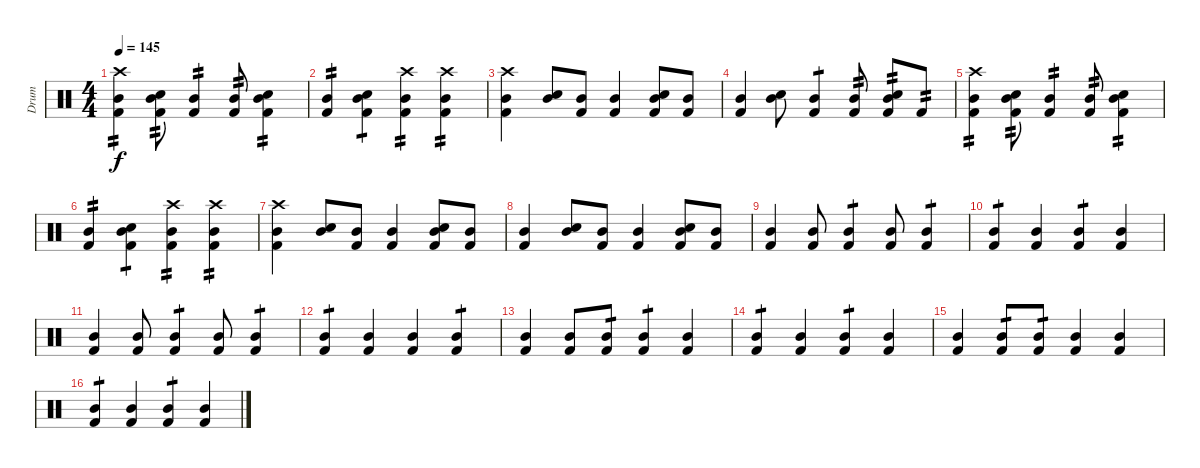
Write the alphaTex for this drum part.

\track ("Drum" "Drum") {instrument percussion}
\staff {score}
\articulation defaults
\ts (4 4)
\tempo 145
\clef neutral
\ks c
("Mid Tom (hit)" "Kick (hit) 2" "Crash high (hit)").4{tp 2 dy f} ("Mid Tom (hit)" "Kick (hit) 2" "Snare (hit) 2").8{tp 2} ("Mid Tom (hit)" "Kick (hit) 2").4{tp 2} ("Mid Tom (hit)" "Kick (hit) 2").8{tp 2} ("Mid Tom (hit)" "Snare (hit) 2" "Kick (hit) 2").4{tp 2} |
("Mid Tom (hit)" "Kick (hit) 2").4{tp 2} ("Mid Tom (hit)" "Kick (hit) 2" "Snare (hit) 2").4{tp 1} ("Mid Tom (hit)" "Kick (hit) 2" "Crash high (hit)").4{tp 2} ("Mid Tom (hit)" "Kick (hit) 2" "Crash high (hit)").4{tp 2} |
("Mid Tom (hit)" "Kick (hit) 2" "Crash high (hit)").4 ("Mid Tom (hit)" "Snare (hit) 2").8 ("Mid Tom (hit)" "Kick (hit) 2").8 ("Mid Tom (hit)" "Kick (hit) 2").4 ("Mid Tom (hit)" "Kick (hit) 2" "Snare (hit) 2").8 ("Mid Tom (hit)" "Kick (hit) 2").8 |
("Mid Tom (hit)" "Kick (hit) 2").4 ("Mid Tom (hit)" "Snare (hit) 2").8 ("Mid Tom (hit)" "Kick (hit) 2").4{tp 1} ("Mid Tom (hit)" "Kick (hit) 2").8{tp 2} ("Mid Tom (hit)" "Snare (hit) 2" "Kick (hit) 2").8{tp 2} "Kick (hit) 2".8{tp 2} |
("Mid Tom (hit)" "Kick (hit) 2" "Crash high (hit)").4{tp 2} ("Mid Tom (hit)" "Kick (hit) 2" "Snare (hit) 2").8{tp 2} ("Mid Tom (hit)" "Kick (hit) 2").4{tp 2} ("Mid Tom (hit)" "Kick (hit) 2").8{tp 2} ("Mid Tom (hit)" "Snare (hit) 2" "Kick (hit) 2").4{tp 2} |
("Mid Tom (hit)" "Kick (hit) 2").4{tp 2} ("Mid Tom (hit)" "Kick (hit) 2" "Snare (hit) 2").4{tp 1} ("Mid Tom (hit)" "Kick (hit) 2" "Crash high (hit)").4{tp 2} ("Mid Tom (hit)" "Kick (hit) 2" "Crash high (hit)").4{tp 2} |
("Mid Tom (hit)" "Kick (hit) 2" "Crash high (hit)").4 ("Mid Tom (hit)" "Snare (hit) 2").8 ("Mid Tom (hit)" "Kick (hit) 2").8 ("Mid Tom (hit)" "Kick (hit) 2").4 ("Mid Tom (hit)" "Kick (hit) 2" "Snare (hit) 2").8 ("Mid Tom (hit)" "Kick (hit) 2").8 |
("Mid Tom (hit)" "Kick (hit) 2").4 ("Mid Tom (hit)" "Snare (hit) 2").8 ("Mid Tom (hit)" "Kick (hit) 2").8 ("Mid Tom (hit)" "Kick (hit) 2").4 ("Mid Tom (hit)" "Kick (hit) 2" "Snare (hit) 2").8 ("Mid Tom (hit)" "Kick (hit) 2").8 |
("Mid Tom (hit)" "Kick (hit) 2").4 ("Mid Tom (hit)" "Kick (hit) 2").8 ("Mid Tom (hit)" "Kick (hit) 2").4{tp 1} ("Mid Tom (hit)" "Kick (hit) 2").8 ("Mid Tom (hit)" "Kick (hit) 2").4{tp 1} |
("Mid Tom (hit)" "Kick (hit) 2").4{tp 1} ("Mid Tom (hit)" "Kick (hit) 2").4 ("Mid Tom (hit)" "Kick (hit) 2").4{tp 1} ("Mid Tom (hit)" "Kick (hit) 2").4 |
("Mid Tom (hit)" "Kick (hit) 2").4 ("Mid Tom (hit)" "Kick (hit) 2").8 ("Mid Tom (hit)" "Kick (hit) 2").4{tp 1} ("Mid Tom (hit)" "Kick (hit) 2").8 ("Mid Tom (hit)" "Kick (hit) 2").4{tp 1} |
("Mid Tom (hit)" "Kick (hit) 2").4{tp 1} ("Mid Tom (hit)" "Kick (hit) 2").4 ("Mid Tom (hit)" "Kick (hit) 2").4 ("Mid Tom (hit)" "Kick (hit) 2").4{tp 1} |
("Mid Tom (hit)" "Kick (hit) 2").4 ("Mid Tom (hit)" "Kick (hit) 2").8 ("Mid Tom (hit)" "Kick (hit) 2").8{tp 1} ("Mid Tom (hit)" "Kick (hit) 2").4{tp 1} ("Mid Tom (hit)" "Kick (hit) 2").4 |
("Mid Tom (hit)" "Kick (hit) 2").4{tp 1} ("Mid Tom (hit)" "Kick (hit) 2").4 ("Mid Tom (hit)" "Kick (hit) 2").4{tp 1} ("Mid Tom (hit)" "Kick (hit) 2").4 |
("Mid Tom (hit)" "Kick (hit) 2").4 ("Mid Tom (hit)" "Kick (hit) 2").8{tp 1} ("Mid Tom (hit)" "Kick (hit) 2").8{tp 1} ("Mid Tom (hit)" "Kick (hit) 2").4 ("Mid Tom (hit)" "Kick (hit) 2").4 |
("Mid Tom (hit)" "Kick (hit) 2").4{tp 1} ("Mid Tom (hit)" "Kick (hit) 2").4 ("Mid Tom (hit)" "Kick (hit) 2").4{tp 1} ("Mid Tom (hit)" "Kick (hit) 2").4
